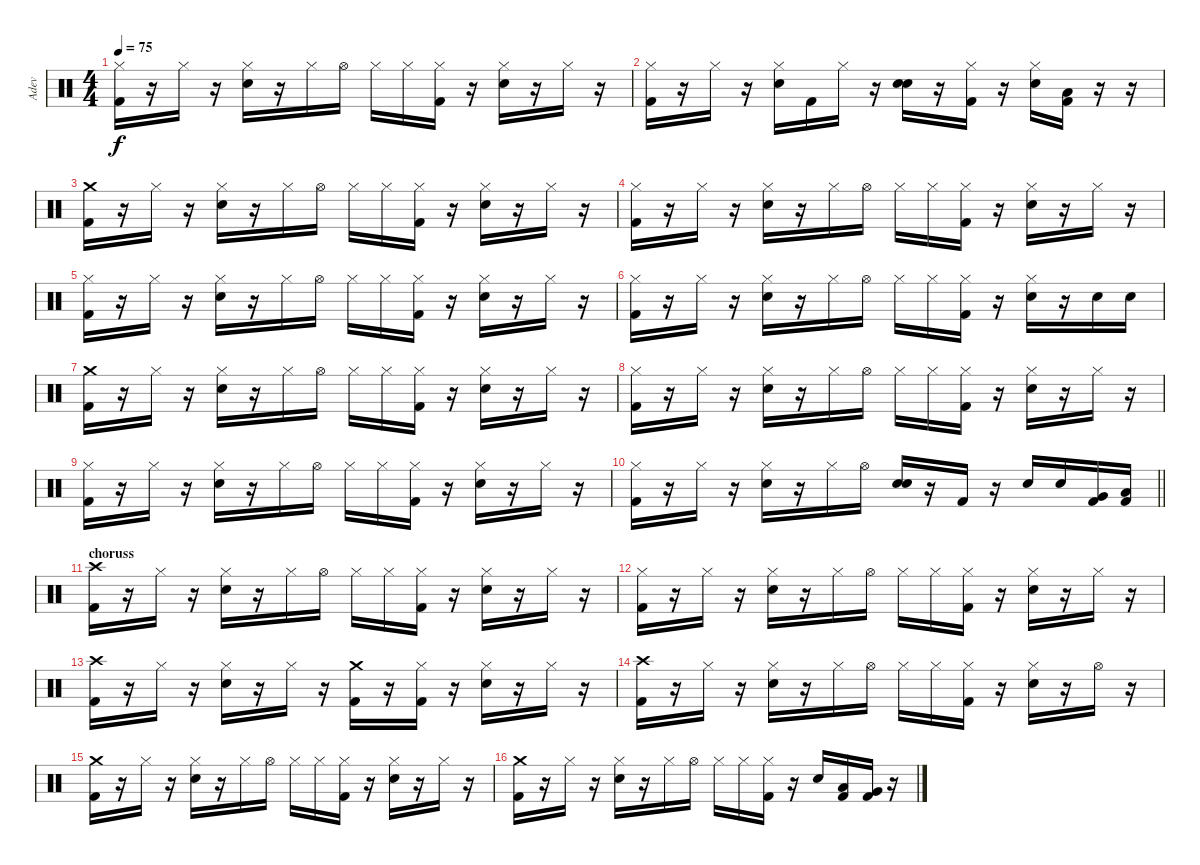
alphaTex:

\track ("Adev" "Adev") {instrument percussion}
\staff {score}
\articulation defaults
\ts (4 4)
\tempo 75
\clef neutral
\ks c
("Hi-Hat (closed)" "Kick (hit) 2").16{dy f} r.16 "Hi-Hat (closed)".16 r.16 ("Hi-Hat (closed)" "Electric Snare (hit)").16 r.16 "Hi-Hat (closed)".16 "Hi-Hat (open)".16 "Hi-Hat (closed)".16 "Hi-Hat (closed)".16 ("Hi-Hat (closed)" "Kick (hit) 2").16 r.16 ("Hi-Hat (closed)" "Electric Snare (hit)").16 r.16 "Hi-Hat (closed)".16 r.16 |
("Hi-Hat (closed)" "Kick (hit) 2").16 r.16 "Hi-Hat (closed)".16 r.16 ("Hi-Hat (closed)" "Electric Snare (hit)").16 "Kick (hit) 2".16 "Hi-Hat (closed)".16 r.16 ("Electric Snare (hit)" "Electric Snare (hit)").16 r.16 ("Hi-Hat (closed)" "Kick (hit) 2").16 r.16 ("Hi-Hat (closed)" "Electric Snare (hit)").16 ("Low Floor Tom (hit)" "Kick (hit) 2").16 r.16 r.16 |
("Crash medium (hit)" "Kick (hit) 2").16 r.16 "Hi-Hat (closed)".16 r.16 ("Hi-Hat (closed)" "Electric Snare (hit)").16 r.16 "Hi-Hat (closed)".16 "Hi-Hat (open)".16 "Hi-Hat (closed)".16 "Hi-Hat (closed)".16 ("Hi-Hat (closed)" "Kick (hit) 2").16 r.16 ("Hi-Hat (closed)" "Electric Snare (hit)").16 r.16 "Hi-Hat (closed)".16 r.16 |
("Hi-Hat (closed)" "Kick (hit) 2").16 r.16 "Hi-Hat (closed)".16 r.16 ("Hi-Hat (closed)" "Electric Snare (hit)").16 r.16 "Hi-Hat (closed)".16 "Hi-Hat (open)".16 "Hi-Hat (closed)".16 "Hi-Hat (closed)".16 ("Hi-Hat (closed)" "Kick (hit) 2").16 r.16 ("Hi-Hat (closed)" "Electric Snare (hit)").16 r.16 "Hi-Hat (closed)".16 r.16 |
("Hi-Hat (closed)" "Kick (hit) 2").16 r.16 "Hi-Hat (closed)".16 r.16 ("Hi-Hat (closed)" "Electric Snare (hit)").16 r.16 "Hi-Hat (closed)".16 "Hi-Hat (open)".16 "Hi-Hat (closed)".16 "Hi-Hat (closed)".16 ("Hi-Hat (closed)" "Kick (hit) 2").16 r.16 ("Hi-Hat (closed)" "Electric Snare (hit)").16 r.16 "Hi-Hat (closed)".16 r.16 |
("Hi-Hat (closed)" "Kick (hit) 2").16 r.16 "Hi-Hat (closed)".16 r.16 ("Hi-Hat (closed)" "Electric Snare (hit)").16 r.16 "Hi-Hat (closed)".16 "Hi-Hat (open)".16 "Hi-Hat (closed)".16 "Hi-Hat (closed)".16 ("Hi-Hat (closed)" "Kick (hit) 2").16 r.16 ("Hi-Hat (closed)" "Electric Snare (hit)").16 r.16 "Electric Snare (hit)".16 "Electric Snare (hit)".16 |
("Crash medium (hit)" "Kick (hit) 2").16 r.16 "Hi-Hat (closed)".16 r.16 ("Hi-Hat (closed)" "Electric Snare (hit)").16 r.16 "Hi-Hat (closed)".16 "Hi-Hat (open)".16 "Hi-Hat (closed)".16 "Hi-Hat (closed)".16 ("Hi-Hat (closed)" "Kick (hit) 2").16 r.16 ("Hi-Hat (closed)" "Electric Snare (hit)").16 r.16 "Hi-Hat (closed)".16 r.16 |
("Hi-Hat (closed)" "Kick (hit) 2").16 r.16 "Hi-Hat (closed)".16 r.16 ("Hi-Hat (closed)" "Electric Snare (hit)").16 r.16 "Hi-Hat (closed)".16 "Hi-Hat (open)".16 "Hi-Hat (closed)".16 "Hi-Hat (closed)".16 ("Hi-Hat (closed)" "Kick (hit) 2").16 r.16 ("Hi-Hat (closed)" "Electric Snare (hit)").16 r.16 "Hi-Hat (closed)".16 r.16 |
("Hi-Hat (closed)" "Kick (hit) 2").16 r.16 "Hi-Hat (closed)".16 r.16 ("Hi-Hat (closed)" "Electric Snare (hit)").16 r.16 "Hi-Hat (closed)".16 "Hi-Hat (open)".16 "Hi-Hat (closed)".16 "Hi-Hat (closed)".16 ("Hi-Hat (closed)" "Kick (hit) 2").16 r.16 ("Hi-Hat (closed)" "Electric Snare (hit)").16 r.16 "Hi-Hat (closed)".16 r.16 |
\barLineRight lightlight
("Hi-Hat (closed)" "Kick (hit) 2").16 r.16 "Hi-Hat (closed)".16 r.16 ("Hi-Hat (closed)" "Electric Snare (hit)").16 r.16 "Hi-Hat (closed)".16 "Hi-Hat (open)".16 ("Electric Snare (hit)" "Electric Snare (hit)").16{bu 120} r.16 "Kick (hit) 2".16 r.16 "Electric Snare (hit)".16 "Electric Snare (hit)".16 ("Very Low Tom (hit)" "Kick (hit) 2").16 ("Low Floor Tom (hit)" "Kick (hit) 2").16 |
\section ("" "choruss")
("Crash high (hit)" "Kick (hit) 2").16 r.16 "Hi-Hat (closed)".16 r.16 ("Hi-Hat (closed)" "Electric Snare (hit)").16 r.16 "Hi-Hat (closed)".16 "Hi-Hat (open)".16 "Hi-Hat (closed)".16 "Hi-Hat (closed)".16 ("Hi-Hat (closed)" "Kick (hit) 2").16 r.16 ("Hi-Hat (closed)" "Electric Snare (hit)").16 r.16 "Hi-Hat (closed)".16 r.16 |
("Hi-Hat (closed)" "Kick (hit) 2").16 r.16 "Hi-Hat (closed)".16 r.16 ("Hi-Hat (closed)" "Electric Snare (hit)").16 r.16 "Hi-Hat (closed)".16 "Hi-Hat (open)".16 "Hi-Hat (closed)".16 "Hi-Hat (closed)".16 ("Hi-Hat (closed)" "Kick (hit) 2").16 r.16 ("Hi-Hat (closed)" "Electric Snare (hit)").16 r.16 "Hi-Hat (closed)".16 r.16 |
("Crash high (hit)" "Kick (hit) 2").16 r.16 "Hi-Hat (closed)".16 r.16 ("Hi-Hat (closed)" "Electric Snare (hit)").16 r.16 "Hi-Hat (closed)".16 r.16 ("Crash medium (hit)" "Kick (hit) 2").16 r.16 ("Hi-Hat (closed)" "Kick (hit) 2").16 r.16 ("Hi-Hat (closed)" "Electric Snare (hit)").16 r.16 "Hi-Hat (closed)".16 r.16 |
("Crash high (hit)" "Kick (hit) 2").16 r.16 "Hi-Hat (closed)".16 r.16 ("Hi-Hat (closed)" "Electric Snare (hit)").16 r.16 "Hi-Hat (closed)".16 "Hi-Hat (open)".16 "Hi-Hat (closed)".16 "Hi-Hat (closed)".16 ("Hi-Hat (closed)" "Kick (hit) 2").16 r.16 ("Hi-Hat (closed)" "Electric Snare (hit)").16 r.16 "Hi-Hat (open)".16 r.16 |
("Crash medium (hit)" "Kick (hit) 2").16 r.16 "Hi-Hat (closed)".16 r.16 ("Hi-Hat (closed)" "Electric Snare (hit)").16 r.16 "Hi-Hat (closed)".16 "Hi-Hat (open)".16 "Hi-Hat (closed)".16 "Hi-Hat (closed)".16 ("Hi-Hat (closed)" "Kick (hit) 2").16 r.16 ("Hi-Hat (closed)" "Electric Snare (hit)").16 r.16 "Hi-Hat (closed)".16 r.16 |
("Crash medium (hit)" "Kick (hit) 2").16 r.16 "Hi-Hat (closed)".16 r.16 ("Hi-Hat (closed)" "Electric Snare (hit)").16 r.16 "Hi-Hat (closed)".16 "Hi-Hat (open)".16 "Hi-Hat (closed)".16 "Hi-Hat (closed)".16 ("Hi-Hat (closed)" "Kick (hit) 2").16 r.16 "Electric Snare (hit)".16 ("Low Tom (hit)" "Kick (hit) 2").16 ("Very Low Tom (hit)" "Kick (hit) 2").16 r.16
